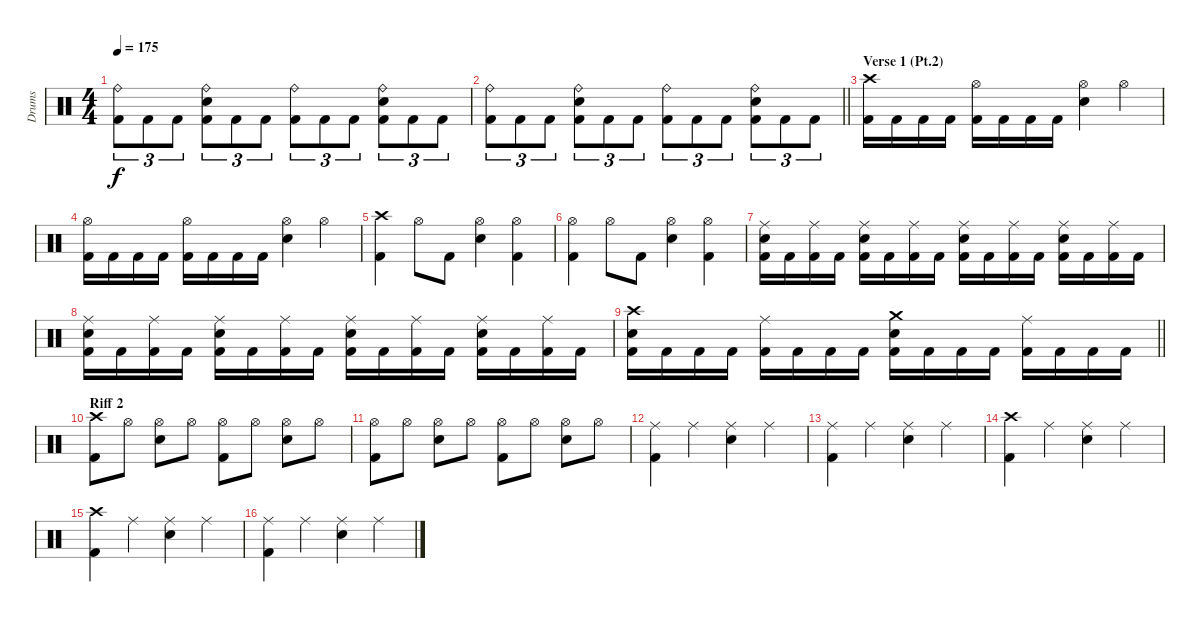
\track ("Drums" "Drums") {instrument percussion}
\staff {score}
\articulation defaults
\ts (4 4)
\tempo 175
\clef neutral
\ks c
("Ride (bell)" "Kick (hit) 2").8{tu (3 2) dy f} "Kick (hit) 2".8{tu (3 2)} "Kick (hit) 2".8{tu (3 2)} ("Ride (bell)" "Electric Snare (hit)" "Kick (hit) 2").8{tu (3 2)} "Kick (hit) 2".8{tu (3 2)} "Kick (hit) 2".8{tu (3 2)} ("Ride (bell)" "Kick (hit) 2").8{tu (3 2)} "Kick (hit) 2".8{tu (3 2)} "Kick (hit) 2".8{tu (3 2)} ("Ride (bell)" "Electric Snare (hit)" "Kick (hit) 2").8{tu (3 2)} "Kick (hit) 2".8{tu (3 2)} "Kick (hit) 2".8{tu (3 2)} |
\barLineRight lightlight
("Ride (bell)" "Kick (hit) 2").8{tu (3 2)} "Kick (hit) 2".8{tu (3 2)} "Kick (hit) 2".8{tu (3 2)} ("Ride (bell)" "Electric Snare (hit)" "Kick (hit) 2").8{tu (3 2)} "Kick (hit) 2".8{tu (3 2)} "Kick (hit) 2".8{tu (3 2)} ("Ride (bell)" "Kick (hit) 2").8{tu (3 2)} "Kick (hit) 2".8{tu (3 2)} "Kick (hit) 2".8{tu (3 2)} ("Ride (bell)" "Electric Snare (hit)" "Kick (hit) 2").8{tu (3 2)} "Kick (hit) 2".8{tu (3 2)} "Kick (hit) 2".8{tu (3 2)} |
\section ("" "Verse 1 (Pt.2)")
("Crash high (hit)" "Kick (hit) 2").16 "Kick (hit) 2".16 "Kick (hit) 2".16 "Kick (hit) 2".16 ("Hi-Hat (open)" "Kick (hit) 2").16 "Kick (hit) 2".16 "Kick (hit) 2".16 "Kick (hit) 2".16 ("Hi-Hat (open)" "Electric Snare (hit)").4 "Hi-Hat (open)".4 |
("Hi-Hat (open)" "Kick (hit) 2").16 "Kick (hit) 2".16 "Kick (hit) 2".16 "Kick (hit) 2".16 ("Hi-Hat (open)" "Kick (hit) 2").16 "Kick (hit) 2".16 "Kick (hit) 2".16 "Kick (hit) 2".16 ("Hi-Hat (open)" "Electric Snare (hit)").4 "Hi-Hat (open)".4 |
("Crash high (hit)" "Kick (hit) 2").4 "Hi-Hat (open)".8 "Kick (hit) 2".8 ("Hi-Hat (open)" "Electric Snare (hit)").4 ("Hi-Hat (open)" "Kick (hit) 2").4 |
("Hi-Hat (open)" "Kick (hit) 2").4 "Hi-Hat (open)".8 "Kick (hit) 2".8 ("Hi-Hat (open)" "Electric Snare (hit)").4 ("Hi-Hat (open)" "Kick (hit) 2").4 |
("Ride (middle)" "Electric Snare (hit)" "Kick (hit) 2").16 "Kick (hit) 2".16 ("Ride (middle)" "Kick (hit) 2").16 "Kick (hit) 2".16 ("Ride (middle)" "Electric Snare (hit)" "Kick (hit) 2").16 "Kick (hit) 2".16 ("Ride (middle)" "Kick (hit) 2").16 "Kick (hit) 2".16 ("Ride (middle)" "Electric Snare (hit)" "Kick (hit) 2").16 "Kick (hit) 2".16 ("Ride (middle)" "Kick (hit) 2").16 "Kick (hit) 2".16 ("Ride (middle)" "Electric Snare (hit)" "Kick (hit) 2").16 "Kick (hit) 2".16 ("Ride (middle)" "Kick (hit) 2").16 "Kick (hit) 2".16 |
("Ride (middle)" "Electric Snare (hit)" "Kick (hit) 2").16 "Kick (hit) 2".16 ("Ride (middle)" "Kick (hit) 2").16 "Kick (hit) 2".16 ("Ride (middle)" "Electric Snare (hit)" "Kick (hit) 2").16 "Kick (hit) 2".16 ("Ride (middle)" "Kick (hit) 2").16 "Kick (hit) 2".16 ("Ride (middle)" "Electric Snare (hit)" "Kick (hit) 2").16 "Kick (hit) 2".16 ("Ride (middle)" "Kick (hit) 2").16 "Kick (hit) 2".16 ("Ride (middle)" "Electric Snare (hit)" "Kick (hit) 2").16 "Kick (hit) 2".16 ("Ride (middle)" "Kick (hit) 2").16 "Kick (hit) 2".16 |
\barLineRight lightlight
("Crash high (hit)" "Electric Snare (hit)" "Kick (hit) 2").16 "Kick (hit) 2".16 "Kick (hit) 2".16 "Kick (hit) 2".16 ("Ride (middle)" "Kick (hit) 2").16 "Kick (hit) 2".16 "Kick (hit) 2".16 "Kick (hit) 2".16 ("Crash medium (hit)" "Electric Snare (hit)" "Kick (hit) 2").16 "Kick (hit) 2".16 "Kick (hit) 2".16 "Kick (hit) 2".16 ("Ride (middle)" "Kick (hit) 2").16 "Kick (hit) 2".16 "Kick (hit) 2".16 "Kick (hit) 2".16 |
\section ("" "Riff 2")
("Crash high (hit)" "Kick (hit) 2").8 "Hi-Hat (open)".8 ("Hi-Hat (open)" "Electric Snare (hit)").8 "Hi-Hat (open)".8 ("Hi-Hat (open)" "Kick (hit) 2").8 "Hi-Hat (open)".8 ("Hi-Hat (open)" "Electric Snare (hit)").8 "Hi-Hat (open)".8 |
("Hi-Hat (open)" "Kick (hit) 2").8 "Hi-Hat (open)".8 ("Hi-Hat (open)" "Electric Snare (hit)").8 "Hi-Hat (open)".8 ("Hi-Hat (open)" "Kick (hit) 2").8 "Hi-Hat (open)".8 ("Hi-Hat (open)" "Electric Snare (hit)").8 "Hi-Hat (open)".8 |
("Ride (middle)" "Kick (hit) 2").4 "Ride (middle)".4 ("Ride (middle)" "Electric Snare (hit)").4 "Ride (middle)".4 |
("Ride (middle)" "Kick (hit) 2").4 "Ride (middle)".4 ("Ride (middle)" "Electric Snare (hit)").4 "Ride (middle)".4 |
("Crash high (hit)" "Kick (hit) 2").4 "Ride (middle)".4 ("Ride (middle)" "Electric Snare (hit)").4 "Ride (middle)".4 |
("Crash high (hit)" "Kick (hit) 2").4 "Ride (middle)".4 ("Ride (middle)" "Electric Snare (hit)").4 "Ride (middle)".4 |
("Ride (middle)" "Kick (hit) 2").4 "Ride (middle)".4 ("Ride (middle)" "Electric Snare (hit)").4 "Ride (middle)".4
